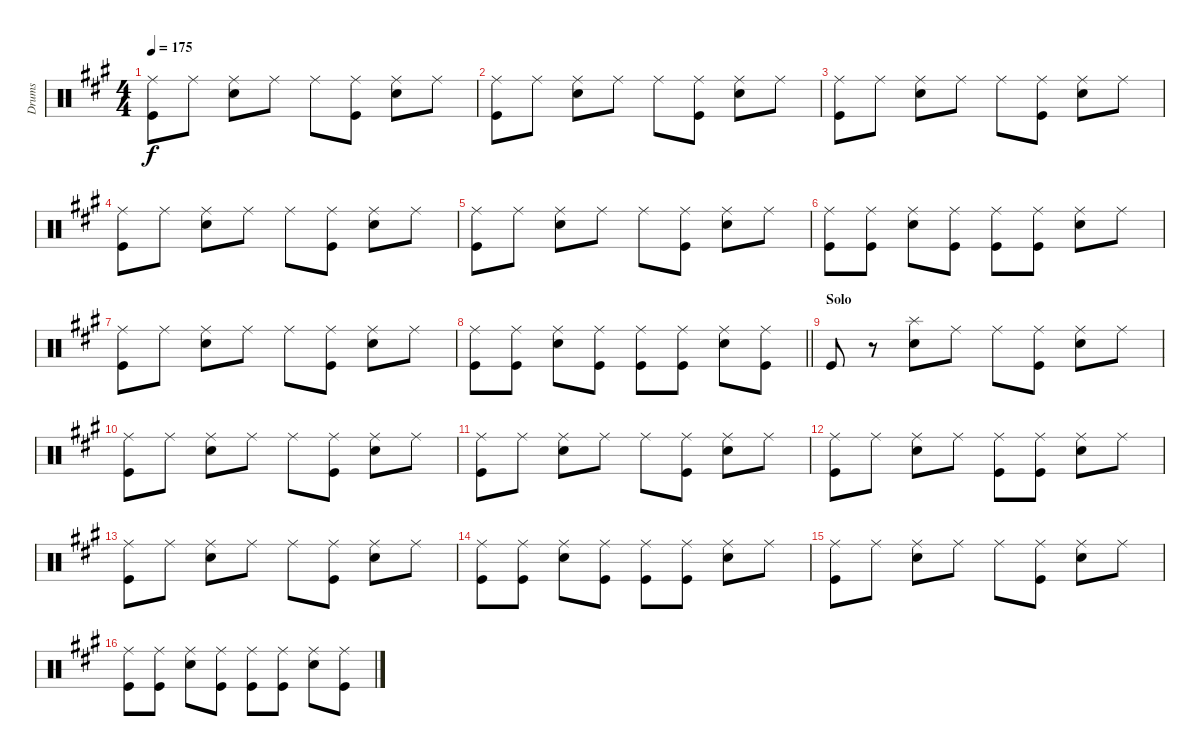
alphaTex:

\track ("Drums" "Drums") {instrument percussion}
\staff {score}
\articulation defaults
\ts (4 4)
\tempo 175
\clef neutral
\ks f#minor
("Ride (middle)" "Kick (hit)").8{dy f} "Ride (middle)".8 ("Ride (middle)" "Snare (hit) 2").8 "Ride (middle)".8 "Ride (middle)".8 ("Ride (middle)" "Kick (hit)").8 ("Ride (middle)" "Snare (hit) 2").8 "Ride (middle)".8 |
("Ride (middle)" "Kick (hit)").8 "Ride (middle)".8 ("Ride (middle)" "Snare (hit) 2").8 "Ride (middle)".8 "Ride (middle)".8 ("Ride (middle)" "Kick (hit)").8 ("Ride (middle)" "Snare (hit) 2").8 "Ride (middle)".8 |
("Ride (middle)" "Kick (hit)").8 "Ride (middle)".8 ("Ride (middle)" "Snare (hit) 2").8 "Ride (middle)".8 "Ride (middle)".8 ("Ride (middle)" "Kick (hit)").8 ("Ride (middle)" "Snare (hit) 2").8 "Ride (middle)".8 |
("Ride (middle)" "Kick (hit)").8 "Ride (middle)".8 ("Ride (middle)" "Snare (hit) 2").8 "Ride (middle)".8 "Ride (middle)".8 ("Ride (middle)" "Kick (hit)").8 ("Ride (middle)" "Snare (hit) 2").8 "Ride (middle)".8 |
("Ride (middle)" "Kick (hit)").8 "Ride (middle)".8 ("Ride (middle)" "Snare (hit) 2").8 "Ride (middle)".8 "Ride (middle)".8 ("Ride (middle)" "Kick (hit)").8 ("Ride (middle)" "Snare (hit) 2").8 "Ride (middle)".8 |
("Ride (middle)" "Kick (hit)").8 ("Ride (middle)" "Kick (hit)").8 ("Ride (middle)" "Snare (hit) 2").8 ("Ride (middle)" "Kick (hit)").8 ("Ride (middle)" "Kick (hit)").8 ("Ride (middle)" "Kick (hit)").8 ("Ride (middle)" "Snare (hit) 2").8 "Ride (middle)".8 |
("Ride (middle)" "Kick (hit)").8 "Ride (middle)".8 ("Ride (middle)" "Snare (hit) 2").8 "Ride (middle)".8 "Ride (middle)".8 ("Ride (middle)" "Kick (hit)").8 ("Ride (middle)" "Snare (hit) 2").8 "Ride (middle)".8 |
\barLineRight lightlight
("Ride (middle)" "Kick (hit)").8 ("Ride (middle)" "Kick (hit)").8 ("Ride (middle)" "Snare (hit) 2").8 ("Ride (middle)" "Kick (hit)").8 ("Ride (middle)" "Kick (hit)").8 ("Ride (middle)" "Kick (hit)").8 ("Ride (middle)" "Snare (hit) 2").8 ("Ride (middle)" "Kick (hit)").8 |
\section ("" "Solo")
"Kick (hit)".8 r.8 ("Splash (hit)" "Snare (hit) 2").8 "Ride (middle)".8 "Ride (middle)".8 ("Ride (middle)" "Kick (hit)").8 ("Ride (middle)" "Snare (hit) 2").8 "Ride (middle)".8 |
("Ride (middle)" "Kick (hit)").8 "Ride (middle)".8 ("Ride (middle)" "Snare (hit) 2").8 "Ride (middle)".8 "Ride (middle)".8 ("Ride (middle)" "Kick (hit)").8 ("Ride (middle)" "Snare (hit) 2").8 "Ride (middle)".8 |
("Ride (middle)" "Kick (hit)").8 "Ride (middle)".8 ("Ride (middle)" "Snare (hit) 2").8 "Ride (middle)".8 "Ride (middle)".8 ("Ride (middle)" "Kick (hit)").8 ("Ride (middle)" "Snare (hit) 2").8 "Ride (middle)".8 |
("Ride (middle)" "Kick (hit)").8 "Ride (middle)".8 ("Ride (middle)" "Snare (hit) 2").8 "Ride (middle)".8 ("Ride (middle)" "Kick (hit)").8 ("Ride (middle)" "Kick (hit)").8 ("Ride (middle)" "Snare (hit) 2").8 "Ride (middle)".8 |
("Ride (middle)" "Kick (hit)").8 "Ride (middle)".8 ("Ride (middle)" "Snare (hit) 2").8 "Ride (middle)".8 "Ride (middle)".8 ("Ride (middle)" "Kick (hit)").8 ("Ride (middle)" "Snare (hit) 2").8 "Ride (middle)".8 |
("Ride (middle)" "Kick (hit)").8 ("Ride (middle)" "Kick (hit)").8 ("Ride (middle)" "Snare (hit) 2").8 ("Ride (middle)" "Kick (hit)").8 ("Ride (middle)" "Kick (hit)").8 ("Ride (middle)" "Kick (hit)").8 ("Ride (middle)" "Snare (hit) 2").8 "Ride (middle)".8 |
("Ride (middle)" "Kick (hit)").8 "Ride (middle)".8 ("Ride (middle)" "Snare (hit) 2").8 "Ride (middle)".8 "Ride (middle)".8 ("Ride (middle)" "Kick (hit)").8 ("Ride (middle)" "Snare (hit) 2").8 "Ride (middle)".8 |
("Ride (middle)" "Kick (hit)").8 ("Ride (middle)" "Kick (hit)").8 ("Ride (middle)" "Snare (hit) 2").8 ("Ride (middle)" "Kick (hit)").8 ("Ride (middle)" "Kick (hit)").8 ("Ride (middle)" "Kick (hit)").8 ("Ride (middle)" "Snare (hit) 2").8 ("Ride (middle)" "Kick (hit)").8
